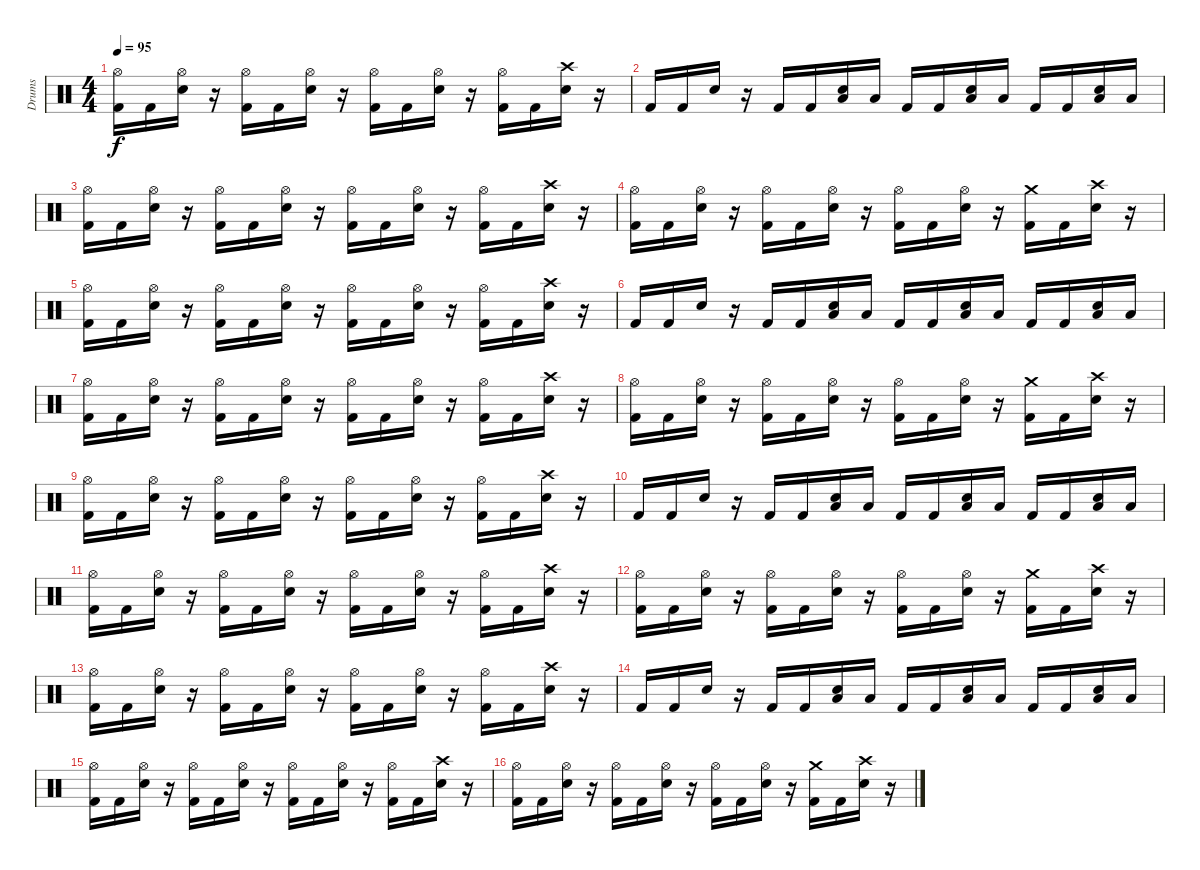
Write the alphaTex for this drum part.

\track ("Drums" "Drums") {instrument percussion}
\staff {score}
\articulation defaults
\ts (4 4)
\tempo 95
\clef neutral
\ks c
("Kick (hit) 2" "Hi-Hat (open)").16{dy f} "Kick (hit) 2".16 ("Snare (hit) 2" "Hi-Hat (open)").16 r.16 ("Kick (hit) 2" "Hi-Hat (open)").16 "Kick (hit) 2".16 ("Snare (hit) 2" "Hi-Hat (open)").16 r.16 ("Kick (hit) 2" "Hi-Hat (open)").16 "Kick (hit) 2".16 ("Snare (hit) 2" "Hi-Hat (open)").16 r.16 ("Kick (hit) 2" "Hi-Hat (open)").16 "Kick (hit) 2".16 ("Snare (hit) 2" "Crash high (hit)").16 r.16 |
"Kick (hit) 2".16 "Kick (hit) 2".16 "Snare (hit) 2".16 r.16 "Kick (hit) 2".16 "Kick (hit) 2".16 ("Snare (hit) 2" "Low Tom (hit)").16 "Low Tom (hit)".16 "Kick (hit) 2".16 "Kick (hit) 2".16 ("Snare (hit) 2" "Low Tom (hit)").16 "Low Tom (hit)".16 "Kick (hit) 2".16 "Kick (hit) 2".16 ("Snare (hit) 2" "Low Tom (hit)").16 "Low Tom (hit)".16 |
("Kick (hit) 2" "Hi-Hat (open)").16 "Kick (hit) 2".16 ("Snare (hit) 2" "Hi-Hat (open)").16 r.16 ("Kick (hit) 2" "Hi-Hat (open)").16 "Kick (hit) 2".16 ("Snare (hit) 2" "Hi-Hat (open)").16 r.16 ("Kick (hit) 2" "Hi-Hat (open)").16 "Kick (hit) 2".16 ("Snare (hit) 2" "Hi-Hat (open)").16 r.16 ("Kick (hit) 2" "Hi-Hat (open)").16 "Kick (hit) 2".16 ("Snare (hit) 2" "Crash high (hit)").16 r.16 |
("Kick (hit) 2" "Hi-Hat (open)").16 "Kick (hit) 2".16 ("Snare (hit) 2" "Hi-Hat (open)").16 r.16 ("Kick (hit) 2" "Hi-Hat (open)").16 "Kick (hit) 2".16 ("Snare (hit) 2" "Hi-Hat (open)").16 r.16 ("Kick (hit) 2" "Hi-Hat (open)").16 "Kick (hit) 2".16 ("Snare (hit) 2" "Hi-Hat (open)").16 r.16 ("Kick (hit) 2" "Crash medium (hit)").16 "Kick (hit) 2".16 ("Snare (hit) 2" "Crash high (hit)").16 r.16 |
("Kick (hit) 2" "Hi-Hat (open)").16 "Kick (hit) 2".16 ("Snare (hit) 2" "Hi-Hat (open)").16 r.16 ("Kick (hit) 2" "Hi-Hat (open)").16 "Kick (hit) 2".16 ("Snare (hit) 2" "Hi-Hat (open)").16 r.16 ("Kick (hit) 2" "Hi-Hat (open)").16 "Kick (hit) 2".16 ("Snare (hit) 2" "Hi-Hat (open)").16 r.16 ("Kick (hit) 2" "Hi-Hat (open)").16 "Kick (hit) 2".16 ("Snare (hit) 2" "Crash high (hit)").16 r.16 |
"Kick (hit) 2".16 "Kick (hit) 2".16 "Snare (hit) 2".16 r.16 "Kick (hit) 2".16 "Kick (hit) 2".16 ("Snare (hit) 2" "Low Tom (hit)").16 "Low Tom (hit)".16 "Kick (hit) 2".16 "Kick (hit) 2".16 ("Snare (hit) 2" "Low Tom (hit)").16 "Low Tom (hit)".16 "Kick (hit) 2".16 "Kick (hit) 2".16 ("Snare (hit) 2" "Low Tom (hit)").16 "Low Tom (hit)".16 |
("Kick (hit) 2" "Hi-Hat (open)").16 "Kick (hit) 2".16 ("Snare (hit) 2" "Hi-Hat (open)").16 r.16 ("Kick (hit) 2" "Hi-Hat (open)").16 "Kick (hit) 2".16 ("Snare (hit) 2" "Hi-Hat (open)").16 r.16 ("Kick (hit) 2" "Hi-Hat (open)").16 "Kick (hit) 2".16 ("Snare (hit) 2" "Hi-Hat (open)").16 r.16 ("Kick (hit) 2" "Hi-Hat (open)").16 "Kick (hit) 2".16 ("Snare (hit) 2" "Crash high (hit)").16 r.16 |
("Kick (hit) 2" "Hi-Hat (open)").16 "Kick (hit) 2".16 ("Snare (hit) 2" "Hi-Hat (open)").16 r.16 ("Kick (hit) 2" "Hi-Hat (open)").16 "Kick (hit) 2".16 ("Snare (hit) 2" "Hi-Hat (open)").16 r.16 ("Kick (hit) 2" "Hi-Hat (open)").16 "Kick (hit) 2".16 ("Snare (hit) 2" "Hi-Hat (open)").16 r.16 ("Kick (hit) 2" "Crash medium (hit)").16 "Kick (hit) 2".16 ("Snare (hit) 2" "Crash high (hit)").16 r.16 |
("Kick (hit) 2" "Hi-Hat (open)").16 "Kick (hit) 2".16 ("Snare (hit) 2" "Hi-Hat (open)").16 r.16 ("Kick (hit) 2" "Hi-Hat (open)").16 "Kick (hit) 2".16 ("Snare (hit) 2" "Hi-Hat (open)").16 r.16 ("Kick (hit) 2" "Hi-Hat (open)").16 "Kick (hit) 2".16 ("Snare (hit) 2" "Hi-Hat (open)").16 r.16 ("Kick (hit) 2" "Hi-Hat (open)").16 "Kick (hit) 2".16 ("Snare (hit) 2" "Crash high (hit)").16 r.16 |
"Kick (hit) 2".16 "Kick (hit) 2".16 "Snare (hit) 2".16 r.16 "Kick (hit) 2".16 "Kick (hit) 2".16 ("Snare (hit) 2" "Low Tom (hit)").16 "Low Tom (hit)".16 "Kick (hit) 2".16 "Kick (hit) 2".16 ("Snare (hit) 2" "Low Tom (hit)").16 "Low Tom (hit)".16 "Kick (hit) 2".16 "Kick (hit) 2".16 ("Snare (hit) 2" "Low Tom (hit)").16 "Low Tom (hit)".16 |
("Kick (hit) 2" "Hi-Hat (open)").16 "Kick (hit) 2".16 ("Snare (hit) 2" "Hi-Hat (open)").16 r.16 ("Kick (hit) 2" "Hi-Hat (open)").16 "Kick (hit) 2".16 ("Snare (hit) 2" "Hi-Hat (open)").16 r.16 ("Kick (hit) 2" "Hi-Hat (open)").16 "Kick (hit) 2".16 ("Snare (hit) 2" "Hi-Hat (open)").16 r.16 ("Kick (hit) 2" "Hi-Hat (open)").16 "Kick (hit) 2".16 ("Snare (hit) 2" "Crash high (hit)").16 r.16 |
("Kick (hit) 2" "Hi-Hat (open)").16 "Kick (hit) 2".16 ("Snare (hit) 2" "Hi-Hat (open)").16 r.16 ("Kick (hit) 2" "Hi-Hat (open)").16 "Kick (hit) 2".16 ("Snare (hit) 2" "Hi-Hat (open)").16 r.16 ("Kick (hit) 2" "Hi-Hat (open)").16 "Kick (hit) 2".16 ("Snare (hit) 2" "Hi-Hat (open)").16 r.16 ("Kick (hit) 2" "Crash medium (hit)").16 "Kick (hit) 2".16 ("Snare (hit) 2" "Crash high (hit)").16 r.16 |
("Kick (hit) 2" "Hi-Hat (open)").16 "Kick (hit) 2".16 ("Snare (hit) 2" "Hi-Hat (open)").16 r.16 ("Kick (hit) 2" "Hi-Hat (open)").16 "Kick (hit) 2".16 ("Snare (hit) 2" "Hi-Hat (open)").16 r.16 ("Kick (hit) 2" "Hi-Hat (open)").16 "Kick (hit) 2".16 ("Snare (hit) 2" "Hi-Hat (open)").16 r.16 ("Kick (hit) 2" "Hi-Hat (open)").16 "Kick (hit) 2".16 ("Snare (hit) 2" "Crash high (hit)").16 r.16 |
"Kick (hit) 2".16 "Kick (hit) 2".16 "Snare (hit) 2".16 r.16 "Kick (hit) 2".16 "Kick (hit) 2".16 ("Snare (hit) 2" "Low Tom (hit)").16 "Low Tom (hit)".16 "Kick (hit) 2".16 "Kick (hit) 2".16 ("Snare (hit) 2" "Low Tom (hit)").16 "Low Tom (hit)".16 "Kick (hit) 2".16 "Kick (hit) 2".16 ("Snare (hit) 2" "Low Tom (hit)").16 "Low Tom (hit)".16 |
("Kick (hit) 2" "Hi-Hat (open)").16 "Kick (hit) 2".16 ("Snare (hit) 2" "Hi-Hat (open)").16 r.16 ("Kick (hit) 2" "Hi-Hat (open)").16 "Kick (hit) 2".16 ("Snare (hit) 2" "Hi-Hat (open)").16 r.16 ("Kick (hit) 2" "Hi-Hat (open)").16 "Kick (hit) 2".16 ("Snare (hit) 2" "Hi-Hat (open)").16 r.16 ("Kick (hit) 2" "Hi-Hat (open)").16 "Kick (hit) 2".16 ("Snare (hit) 2" "Crash high (hit)").16 r.16 |
("Kick (hit) 2" "Hi-Hat (open)").16 "Kick (hit) 2".16 ("Snare (hit) 2" "Hi-Hat (open)").16 r.16 ("Kick (hit) 2" "Hi-Hat (open)").16 "Kick (hit) 2".16 ("Snare (hit) 2" "Hi-Hat (open)").16 r.16 ("Kick (hit) 2" "Hi-Hat (open)").16 "Kick (hit) 2".16 ("Snare (hit) 2" "Hi-Hat (open)").16 r.16 ("Kick (hit) 2" "Crash medium (hit)").16 "Kick (hit) 2".16 ("Snare (hit) 2" "Crash high (hit)").16 r.16
